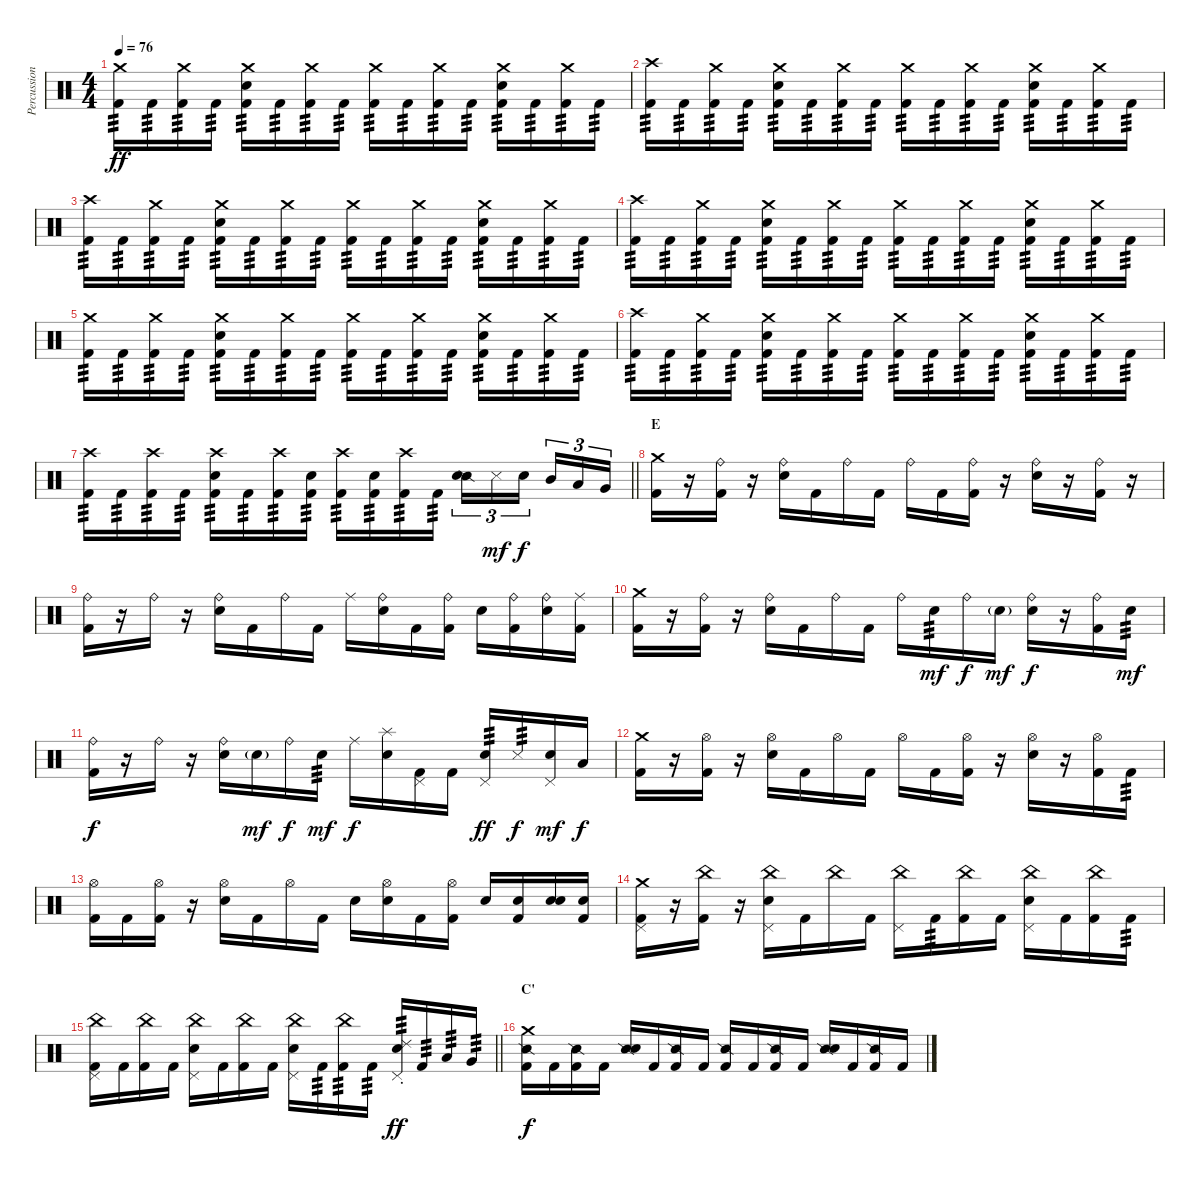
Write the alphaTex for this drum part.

\track ("Percussion" "Percussion") {instrument percussion}
\staff {score}
\articulation defaults
\ts (4 4)
\tempo 76
\clef neutral
\ks c
("Crash medium (hit)" "Kick (hit) 2").16{tp 3 dy ff} "Kick (hit) 2".16{tp 3} ("Crash medium (hit)" "Kick (hit) 2").16{tp 3} "Kick (hit) 2".16{tp 3} ("Crash medium (hit)" "Snare (hit) 2" "Kick (hit) 2").16{tp 3} "Kick (hit) 2".16{tp 3} ("Crash medium (hit)" "Kick (hit) 2").16{tp 3} "Kick (hit) 2".16{tp 3} ("Crash medium (hit)" "Kick (hit) 2").16{tp 3} "Kick (hit) 2".16{tp 3} ("Crash medium (hit)" "Kick (hit) 2").16{tp 3} "Kick (hit) 2".16{tp 3} ("Crash medium (hit)" "Snare (hit) 2" "Kick (hit) 2").16{tp 3} "Kick (hit) 2".16{tp 3} ("Crash medium (hit)" "Kick (hit) 2").16{tp 3} "Kick (hit) 2".16{tp 3} |
("Crash high (hit)" "Kick (hit) 2").16{tp 3} "Kick (hit) 2".16{tp 3} ("Crash medium (hit)" "Kick (hit) 2").16{tp 3} "Kick (hit) 2".16{tp 3} ("Crash medium (hit)" "Snare (hit) 2" "Kick (hit) 2").16{tp 3} "Kick (hit) 2".16{tp 3} ("Crash medium (hit)" "Kick (hit) 2").16{tp 3} "Kick (hit) 2".16{tp 3} ("Crash medium (hit)" "Kick (hit) 2").16{tp 3} "Kick (hit) 2".16{tp 3} ("Crash medium (hit)" "Kick (hit) 2").16{tp 3} "Kick (hit) 2".16{tp 3} ("Crash medium (hit)" "Snare (hit) 2" "Kick (hit) 2").16{tp 3} "Kick (hit) 2".16{tp 3} ("Crash medium (hit)" "Kick (hit) 2").16{tp 3} "Kick (hit) 2".16{tp 3} |
("Crash high (hit)" "Kick (hit) 2").16{tp 3} "Kick (hit) 2".16{tp 3} ("Crash medium (hit)" "Kick (hit) 2").16{tp 3} "Kick (hit) 2".16{tp 3} ("Crash medium (hit)" "Snare (hit) 2" "Kick (hit) 2").16{tp 3} "Kick (hit) 2".16{tp 3} ("Crash medium (hit)" "Kick (hit) 2").16{tp 3} "Kick (hit) 2".16{tp 3} ("Crash medium (hit)" "Kick (hit) 2").16{tp 3} "Kick (hit) 2".16{tp 3} ("Crash medium (hit)" "Kick (hit) 2").16{tp 3} "Kick (hit) 2".16{tp 3} ("Crash medium (hit)" "Snare (hit) 2" "Kick (hit) 2").16{tp 3} "Kick (hit) 2".16{tp 3} ("Crash medium (hit)" "Kick (hit) 2").16{tp 3} "Kick (hit) 2".16{tp 3} |
("Crash high (hit)" "Kick (hit) 2").16{tp 3} "Kick (hit) 2".16{tp 3} ("Crash medium (hit)" "Kick (hit) 2").16{tp 3} "Kick (hit) 2".16{tp 3} ("Crash medium (hit)" "Snare (hit) 2" "Kick (hit) 2").16{tp 3} "Kick (hit) 2".16{tp 3} ("Crash medium (hit)" "Kick (hit) 2").16{tp 3} "Kick (hit) 2".16{tp 3} ("Crash medium (hit)" "Kick (hit) 2").16{tp 3} "Kick (hit) 2".16{tp 3} ("Crash medium (hit)" "Kick (hit) 2").16{tp 3} "Kick (hit) 2".16{tp 3} ("Crash medium (hit)" "Snare (hit) 2" "Kick (hit) 2").16{tp 3} "Kick (hit) 2".16{tp 3} ("Crash medium (hit)" "Kick (hit) 2").16{tp 3} "Kick (hit) 2".16{tp 3} |
("Crash medium (hit)" "Kick (hit) 2").16{tp 3} "Kick (hit) 2".16{tp 3} ("Crash medium (hit)" "Kick (hit) 2").16{tp 3} "Kick (hit) 2".16{tp 3} ("Crash medium (hit)" "Snare (hit) 2" "Kick (hit) 2").16{tp 3} "Kick (hit) 2".16{tp 3} ("Crash medium (hit)" "Kick (hit) 2").16{tp 3} "Kick (hit) 2".16{tp 3} ("Crash medium (hit)" "Kick (hit) 2").16{tp 3} "Kick (hit) 2".16{tp 3} ("Crash medium (hit)" "Kick (hit) 2").16{tp 3} "Kick (hit) 2".16{tp 3} ("Crash medium (hit)" "Snare (hit) 2" "Kick (hit) 2").16{tp 3} "Kick (hit) 2".16{tp 3} ("Crash medium (hit)" "Kick (hit) 2").16{tp 3} "Kick (hit) 2".16{tp 3} |
("Crash high (hit)" "Kick (hit) 2").16{tp 3} "Kick (hit) 2".16{tp 3} ("Crash medium (hit)" "Kick (hit) 2").16{tp 3} "Kick (hit) 2".16{tp 3} ("Crash medium (hit)" "Snare (hit) 2" "Kick (hit) 2").16{tp 3} "Kick (hit) 2".16{tp 3} ("Crash medium (hit)" "Kick (hit) 2").16{tp 3} "Kick (hit) 2".16{tp 3} ("Crash medium (hit)" "Kick (hit) 2").16{tp 3} "Kick (hit) 2".16{tp 3} ("Crash medium (hit)" "Kick (hit) 2").16{tp 3} "Kick (hit) 2".16{tp 3} ("Crash medium (hit)" "Snare (hit) 2" "Kick (hit) 2").16{tp 3} "Kick (hit) 2".16{tp 3} ("Crash medium (hit)" "Kick (hit) 2").16{tp 3} "Kick (hit) 2".16{tp 3} |
\barLineRight lightlight
("Crash high (hit)" "Kick (hit) 2").16{tp 3} "Kick (hit) 2".16{tp 3} ("Crash high (hit)" "Kick (hit) 2").16{tp 3} "Kick (hit) 2".16{tp 3} ("Crash high (hit)" "Snare (hit) 2" "Kick (hit) 2").16{tp 3} "Kick (hit) 2".16{tp 3} ("Crash high (hit)" "Kick (hit) 2").16{tp 3} ("Snare (hit) 2" "Kick (hit) 2").16{tp 3} ("Crash high (hit)" "Kick (hit) 2").16{tp 3} ("Snare (hit) 2" "Kick (hit) 2").16{tp 3} ("Crash high (hit)" "Kick (hit) 2").16{tp 3} "Kick (hit) 2".16{tp 3} ("Snare (side stick) 2" "Snare (hit) 2").16{tu (3 2)} "Metronome (hit)".16{tu (3 2) dy mf} "Snare (hit) 2".16{tu (3 2) dy f beam splitsecondary} "Mid Tom (hit)".16{tu (3 2)} "Low Tom (hit)".16{tu (3 2)} "Very Low Tom (hit)".16{tu (3 2)} |
\section ("" "E")
("Crash medium (hit)" "Kick (hit) 2").16 r.16 ("Ride (bell)" "Kick (hit) 2").16 r.16 ("Ride (bell)" "Snare (hit) 2").16 "Kick (hit) 2".16 "Ride (bell)".16 "Kick (hit) 2".16 "Ride (bell)".16 "Kick (hit) 2".16 ("Ride (bell)" "Kick (hit) 2").16 r.16 ("Ride (bell)" "Snare (hit) 2").16 r.16 ("Ride (bell)" "Kick (hit) 2").16 r.16 |
("Ride (bell)" "Kick (hit) 2").16 r.16 "Ride (bell)".16 r.16 ("Ride (bell)" "Snare (hit) 2").16 "Kick (hit) 2".16 "Ride (bell)".16 "Kick (hit) 2".16 "Ride (middle)".16 ("Ride (bell)" "Snare (hit) 2").16 "Kick (hit) 2".16 ("Ride (bell)" "Kick (hit) 2").16 "Snare (hit) 2".16 ("Ride (bell)" "Kick (hit) 2").16 ("Ride (bell)" "Snare (hit) 2").16 ("Ride (middle)" "Kick (hit) 2").16 |
("Crash medium (hit)" "Kick (hit) 2").16 r.16 ("Ride (bell)" "Kick (hit) 2").16 r.16 ("Ride (bell)" "Snare (hit) 2").16 "Kick (hit) 2".16 "Ride (bell)".16 "Kick (hit) 2".16 "Ride (bell)".16 "Snare (hit) 2".16{tp 3 dy mf} "Ride (bell)".16{dy f} "Snare (hit) 2"{g}.16{dy mf} ("Ride (bell)" "Snare (hit) 2").16{dy f} r.16 ("Ride (bell)" "Kick (hit) 2").16 "Snare (hit) 2".16{tp 3 dy mf} |
("Ride (bell)" "Kick (hit) 2").16{dy f} r.16 "Ride (bell)".16 r.16 ("Ride (bell)" "Snare (hit) 2").16 "Snare (hit) 2"{g}.16{dy mf} "Ride (bell)".16{dy f} "Snare (hit) 2".16{tp 3 dy mf} "Ride (middle)".16{dy f} ("Splash (hit)" "Snare (hit) 2").16 ("Pedal Hi-Hat (hit)" "Kick (hit) 2").16 "Kick (hit) 2".16 ("Pedal Hi-Hat (hit)" "Snare (hit) 2").16{tp 3 dy ff} "Metronome (hit)".16{tp 3 dy f} ("Pedal Hi-Hat (hit)" "Snare (hit) 2").16{dy mf} "Low Tom (hit)".16{dy f} |
("Crash medium (hit)" "Kick (hit) 2").16 r.16 ("Hi-Hat (open)" "Kick (hit) 2").16 r.16 ("Hi-Hat (open)" "Snare (hit) 2").16 "Kick (hit) 2".16 "Hi-Hat (open)".16 "Kick (hit) 2".16 "Hi-Hat (open)".16 "Kick (hit) 2".16 ("Hi-Hat (open)" "Kick (hit) 2").16 r.16 ("Hi-Hat (open)" "Snare (hit) 2").16 r.16 ("Hi-Hat (open)" "Kick (hit) 2").16 "Kick (hit) 2".16{tp 3} |
("Hi-Hat (open)" "Kick (hit) 2").16 "Kick (hit) 2".16 ("Hi-Hat (open)" "Kick (hit) 2").16 r.16 ("Hi-Hat (open)" "Snare (hit) 2").16 "Kick (hit) 2".16 "Hi-Hat (open)".16 "Kick (hit) 2".16 "Snare (hit)".16 ("Hi-Hat (open)" "Snare (hit) 2").16 "Kick (hit) 2".16 ("Hi-Hat (open)" "Kick (hit) 2").16 "Snare (hit) 2".16 ("Snare (hit)" "Kick (hit) 2").16 ("Snare (hit)" "Snare (hit) 2").16 ("Snare (hit)" "Kick (hit) 2").16 |
("Crash medium (hit)" "Pedal Hi-Hat (hit)" "Kick (hit) 2").16 r.16 ("China (hit)" "Kick (hit) 2").16 r.16 ("China (hit)" "Pedal Hi-Hat (hit)" "Snare (hit) 2").16 "Kick (hit) 2".16 "China (hit)".16 "Kick (hit) 2".16 ("China (hit)" "Pedal Hi-Hat (hit)").16 "Kick (hit) 2".16{tp 3} ("China (hit)" "Kick (hit) 2").16 "Kick (hit) 2".16 ("China (hit)" "Pedal Hi-Hat (hit)" "Snare (hit) 2").16 "Kick (hit) 2".16 ("China (hit)" "Kick (hit) 2").16 "Kick (hit) 2".16{tp 3} |
\barLineRight lightlight
("China (hit)" "Pedal Hi-Hat (hit)" "Kick (hit) 2").16 "Kick (hit) 2".16 ("China (hit)" "Kick (hit) 2").16 "Kick (hit) 2".16 ("China (hit)" "Pedal Hi-Hat (hit)" "Snare (hit) 2").16 "Kick (hit) 2".16 ("China (hit)" "Kick (hit) 2").16 "Kick (hit) 2".16 ("China (hit)" "Pedal Hi-Hat (hit)" "Snare (hit) 2").16 "Kick (hit) 2".16{tp 3} ("China (hit)" "Kick (hit) 2").16{tp 3} "Kick (hit) 2".16{tp 3} ("Ride (choke) 2" "Pedal Hi-Hat (hit)" "Snare (hit) 2").16{tp 3 dy ff} "Kick (hit) 2".16{tp 3} "Low Tom (hit)".16{tp 3} "Very Low Tom (hit)".16{tp 3} |
\section ("" "C'")
("Snare (side stick) 2" "Crash medium (hit)" "Kick (hit) 2").16{dy f} "Kick (hit) 2".16 ("Snare (side stick) 2" "Kick (hit) 2").16 "Kick (hit) 2".16 ("Snare (side stick) 2" "Snare (hit) 2").16 "Kick (hit) 2".16 ("Snare (side stick) 2" "Kick (hit) 2").16 "Kick (hit) 2".16 ("Snare (side stick) 2" "Kick (hit) 2").16 "Kick (hit) 2".16 ("Snare (side stick) 2" "Kick (hit) 2").16 "Kick (hit) 2".16 ("Snare (side stick) 2" "Snare (hit) 2").16 "Kick (hit) 2".16 ("Snare (side stick) 2" "Kick (hit) 2").16 "Kick (hit) 2".16
